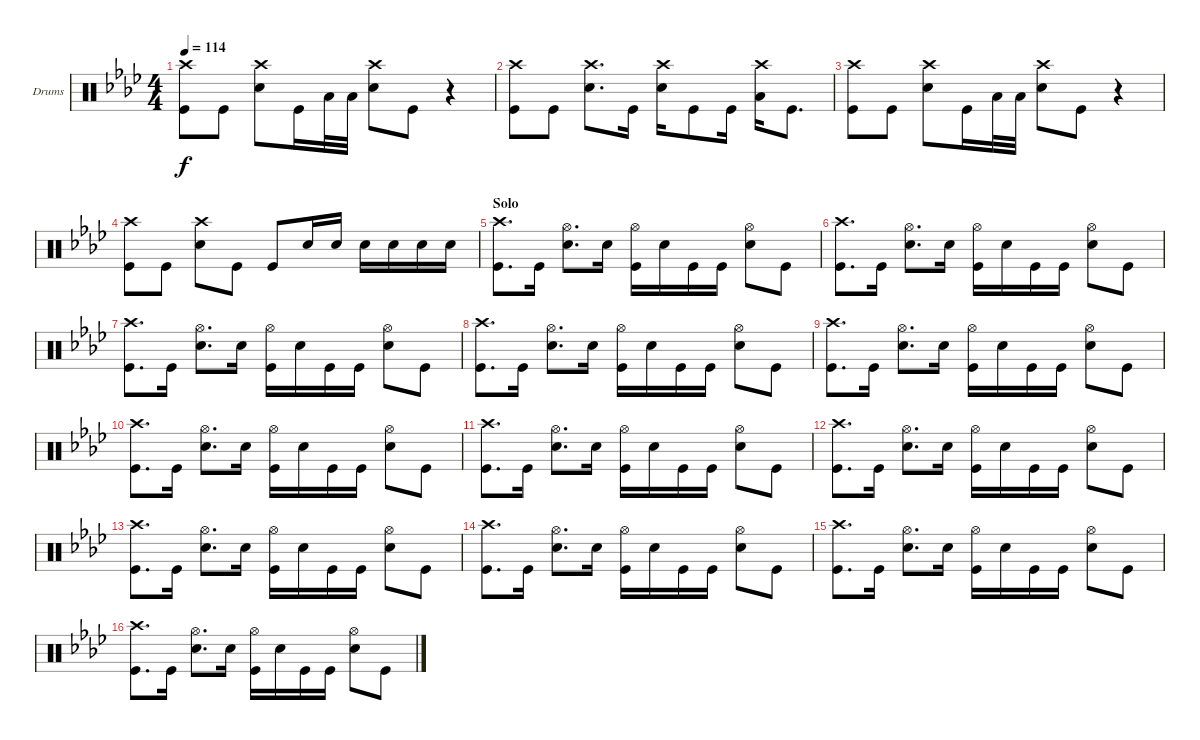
\defaultSystemsLayout 4
\bracketExtendMode groupsimilarinstruments
\firstSystemTrackNameOrientation horizontal
\otherSystemsTrackNameOrientation horizontal
\track ("Drumkit" "Drums") {instrument percussion}
\staff {score}
\articulation defaults
\ts (4 4)
\tempo 114
\clef neutral
\scale
1.06431
\ks ab
("Crash high (hit)" "Kick (hit)").8{dy f} "Kick (hit)".8 ("Crash high (hit)" "Snare (hit) 2").8 "Kick (hit)".16 "Low Tom (hit)".32 "Low Tom (hit)".32 ("Crash high (hit)" "Snare (hit) 2").8 "Kick (hit)".8 r.4 |
\scale
0.935687 ("Crash high (hit)" "Kick (hit)").8 "Kick (hit)".8 ("Crash high (hit)" "Snare (hit) 2").8{d} "Kick (hit)".16 ("Crash high (hit)" "Snare (hit) 2").16 "Kick (hit)".8 "Kick (hit)".16 ("Crash high (hit)" "Low Tom (hit)").16 "Kick (hit)".8{d} |
\scale
1.06431 ("Crash high (hit)" "Kick (hit)").8 "Kick (hit)".8 ("Crash high (hit)" "Snare (hit) 2").8 "Kick (hit)".16 "Low Tom (hit)".32 "Low Tom (hit)".32 ("Crash high (hit)" "Snare (hit) 2").8 "Kick (hit)".8 r.4 |
\scale
0.935687 ("Crash high (hit)" "Kick (hit)").8 "Kick (hit)".8 ("Crash high (hit)" "Snare (hit) 2").8 "Kick (hit)".8 "Kick (hit)".8 "Snare (hit) 2".16 "Snare (hit) 2".16 "Snare (hit) 2".16 "Snare (hit) 2".16 "Snare (hit) 2".16 "Snare (hit) 2".16 |
\section ("" "Solo")
\scale
1.06431 ("Crash high (hit)" "Kick (hit)").8{d} "Kick (hit)".16 ("Hi-Hat (open)" "Snare (hit) 2").8{d} "Snare (hit) 2".16 ("Hi-Hat (open)" "Kick (hit)").16 "Snare (hit) 2".16 "Kick (hit)".16 "Kick (hit)".16 ("Hi-Hat (open)" "Snare (hit) 2").8 "Kick (hit)".8 |
\scale
0.935687 ("Crash high (hit)" "Kick (hit)").8{d} "Kick (hit)".16 ("Hi-Hat (open)" "Snare (hit) 2").8{d} "Snare (hit) 2".16 ("Hi-Hat (open)" "Kick (hit)").16 "Snare (hit) 2".16 "Kick (hit)".16 "Kick (hit)".16 ("Hi-Hat (open)" "Snare (hit) 2").8 "Kick (hit)".8 |
\scale
1.06431 ("Crash high (hit)" "Kick (hit)").8{d} "Kick (hit)".16 ("Hi-Hat (open)" "Snare (hit) 2").8{d} "Snare (hit) 2".16 ("Hi-Hat (open)" "Kick (hit)").16 "Snare (hit) 2".16 "Kick (hit)".16 "Kick (hit)".16 ("Hi-Hat (open)" "Snare (hit) 2").8 "Kick (hit)".8 |
\scale
0.935687 ("Crash high (hit)" "Kick (hit)").8{d} "Kick (hit)".16 ("Hi-Hat (open)" "Snare (hit) 2").8{d} "Snare (hit) 2".16 ("Hi-Hat (open)" "Kick (hit)").16 "Snare (hit) 2".16 "Kick (hit)".16 "Kick (hit)".16 ("Hi-Hat (open)" "Snare (hit) 2").8 "Kick (hit)".8 |
\scale
1.06431 ("Crash high (hit)" "Kick (hit)").8{d} "Kick (hit)".16 ("Hi-Hat (open)" "Snare (hit) 2").8{d} "Snare (hit) 2".16 ("Hi-Hat (open)" "Kick (hit)").16 "Snare (hit) 2".16 "Kick (hit)".16 "Kick (hit)".16 ("Hi-Hat (open)" "Snare (hit) 2").8 "Kick (hit)".8 |
\scale
0.935687 ("Crash high (hit)" "Kick (hit)").8{d} "Kick (hit)".16 ("Hi-Hat (open)" "Snare (hit) 2").8{d} "Snare (hit) 2".16 ("Hi-Hat (open)" "Kick (hit)").16 "Snare (hit) 2".16 "Kick (hit)".16 "Kick (hit)".16 ("Hi-Hat (open)" "Snare (hit) 2").8 "Kick (hit)".8 |
\scale
1.06431 ("Crash high (hit)" "Kick (hit)").8{d} "Kick (hit)".16 ("Hi-Hat (open)" "Snare (hit) 2").8{d} "Snare (hit) 2".16 ("Hi-Hat (open)" "Kick (hit)").16 "Snare (hit) 2".16 "Kick (hit)".16 "Kick (hit)".16 ("Hi-Hat (open)" "Snare (hit) 2").8 "Kick (hit)".8 |
\scale
0.935687 ("Crash high (hit)" "Kick (hit)").8{d} "Kick (hit)".16 ("Hi-Hat (open)" "Snare (hit) 2").8{d} "Snare (hit) 2".16 ("Hi-Hat (open)" "Kick (hit)").16 "Snare (hit) 2".16 "Kick (hit)".16 "Kick (hit)".16 ("Hi-Hat (open)" "Snare (hit) 2").8 "Kick (hit)".8 |
\scale
1.06431 ("Crash high (hit)" "Kick (hit)").8{d} "Kick (hit)".16 ("Hi-Hat (open)" "Snare (hit) 2").8{d} "Snare (hit) 2".16 ("Hi-Hat (open)" "Kick (hit)").16 "Snare (hit) 2".16 "Kick (hit)".16 "Kick (hit)".16 ("Hi-Hat (open)" "Snare (hit) 2").8 "Kick (hit)".8 |
\scale
0.935687 ("Crash high (hit)" "Kick (hit)").8{d} "Kick (hit)".16 ("Hi-Hat (open)" "Snare (hit) 2").8{d} "Snare (hit) 2".16 ("Hi-Hat (open)" "Kick (hit)").16 "Snare (hit) 2".16 "Kick (hit)".16 "Kick (hit)".16 ("Hi-Hat (open)" "Snare (hit) 2").8 "Kick (hit)".8 |
\scale
1.06431 ("Crash high (hit)" "Kick (hit)").8{d} "Kick (hit)".16 ("Hi-Hat (open)" "Snare (hit) 2").8{d} "Snare (hit) 2".16 ("Hi-Hat (open)" "Kick (hit)").16 "Snare (hit) 2".16 "Kick (hit)".16 "Kick (hit)".16 ("Hi-Hat (open)" "Snare (hit) 2").8 "Kick (hit)".8 |
\scale
0.935687 ("Crash high (hit)" "Kick (hit)").8{d} "Kick (hit)".16 ("Hi-Hat (open)" "Snare (hit) 2").8{d} "Snare (hit) 2".16 ("Hi-Hat (open)" "Kick (hit)").16 "Snare (hit) 2".16 "Kick (hit)".16 "Kick (hit)".16 ("Hi-Hat (open)" "Snare (hit) 2").8 "Kick (hit)".8
